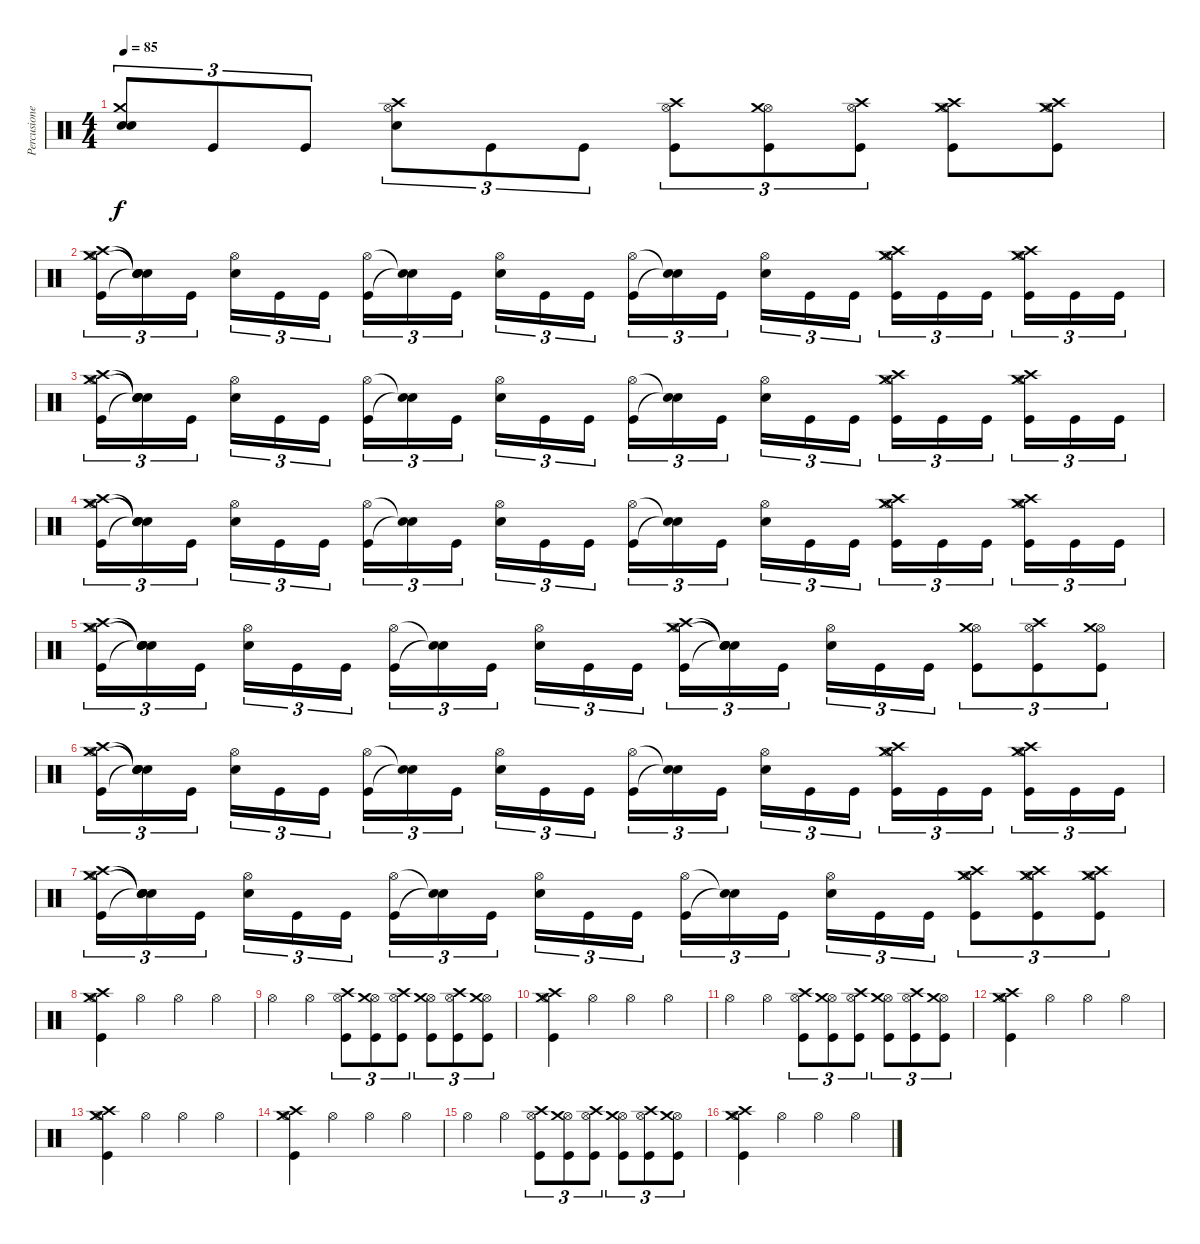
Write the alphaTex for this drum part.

\track ("Percusiones" "Percusione") {instrument percussion}
\staff {score}
\articulation defaults
\ts (4 4)
\tempo 85
\clef neutral
\ks c
("Snare (hit)" "Crash medium (hit)" "Electric Snare (hit)").8{tu (3 2) dy f} "Kick (hit)".8{tu (3 2)} "Kick (hit)".8{tu (3 2)} ("Hi-Hat (open)" "Crash high (hit)" "Electric Snare (hit)").8{tu (3 2)} "Kick (hit)".8{tu (3 2)} "Kick (hit)".8{tu (3 2)} ("Hi-Hat (open)" "Crash high (hit)" "Kick (hit)").8{tu (3 2)} ("Hi-Hat (open)" "Crash medium (hit)" "Kick (hit)").8{tu (3 2)} ("Hi-Hat (open)" "Crash high (hit)" "Kick (hit)").8{tu (3 2)} ("Hi-Hat (open)" "Crash high (hit)" "Crash medium (hit)" "Kick (hit)").8 ("Hi-Hat (open)" "Crash high (hit)" "Crash medium (hit)" "Kick (hit)").8 |
("Hi-Hat (open)" "Crash high (hit)" "Crash medium (hit)" "Kick (hit)").16{tu (3 2)} ("Snare (hit)"{t} "Snare (hit)"{t} "Snare (hit)"{t} "Snare (hit)"{t}).16{tu (3 2)} "Kick (hit)".16{tu (3 2)} ("Hi-Hat (open)" "Electric Snare (hit)").16{tu (3 2)} "Kick (hit)".16{tu (3 2)} "Kick (hit)".16{tu (3 2)} ("Hi-Hat (open)" "Kick (hit)").16{tu (3 2)} ("Snare (hit)"{t} "Snare (hit)"{t}).16{tu (3 2)} "Kick (hit)".16{tu (3 2)} ("Hi-Hat (open)" "Electric Snare (hit)").16{tu (3 2)} "Kick (hit)".16{tu (3 2)} "Kick (hit)".16{tu (3 2)} ("Hi-Hat (open)" "Kick (hit)").16{tu (3 2)} ("Snare (hit)"{t} "Snare (hit)"{t}).16{tu (3 2)} "Kick (hit)".16{tu (3 2)} ("Hi-Hat (open)" "Electric Snare (hit)").16{tu (3 2)} "Kick (hit)".16{tu (3 2)} "Kick (hit)".16{tu (3 2)} ("Hi-Hat (open)" "Crash medium (hit)" "Crash high (hit)" "Kick (hit)").16{tu (3 2)} "Kick (hit)".16{tu (3 2)} "Kick (hit)".16{tu (3 2)} ("Hi-Hat (open)" "Crash high (hit)" "Crash medium (hit)" "Kick (hit)").16{tu (3 2)} "Kick (hit)".16{tu (3 2)} "Kick (hit)".16{tu (3 2)} |
("Hi-Hat (open)" "Crash high (hit)" "Crash medium (hit)" "Kick (hit)").16{tu (3 2)} ("Snare (hit)"{t} "Snare (hit)"{t} "Snare (hit)"{t} "Snare (hit)"{t}).16{tu (3 2)} "Kick (hit)".16{tu (3 2)} ("Hi-Hat (open)" "Electric Snare (hit)").16{tu (3 2)} "Kick (hit)".16{tu (3 2)} "Kick (hit)".16{tu (3 2)} ("Hi-Hat (open)" "Kick (hit)").16{tu (3 2)} ("Snare (hit)"{t} "Snare (hit)"{t}).16{tu (3 2)} "Kick (hit)".16{tu (3 2)} ("Hi-Hat (open)" "Electric Snare (hit)").16{tu (3 2)} "Kick (hit)".16{tu (3 2)} "Kick (hit)".16{tu (3 2)} ("Hi-Hat (open)" "Kick (hit)").16{tu (3 2)} ("Snare (hit)"{t} "Snare (hit)"{t}).16{tu (3 2)} "Kick (hit)".16{tu (3 2)} ("Hi-Hat (open)" "Electric Snare (hit)").16{tu (3 2)} "Kick (hit)".16{tu (3 2)} "Kick (hit)".16{tu (3 2)} ("Hi-Hat (open)" "Crash medium (hit)" "Crash high (hit)" "Kick (hit)").16{tu (3 2)} "Kick (hit)".16{tu (3 2)} "Kick (hit)".16{tu (3 2)} ("Hi-Hat (open)" "Crash high (hit)" "Crash medium (hit)" "Kick (hit)").16{tu (3 2)} "Kick (hit)".16{tu (3 2)} "Kick (hit)".16{tu (3 2)} |
("Hi-Hat (open)" "Crash high (hit)" "Crash medium (hit)" "Kick (hit)").16{tu (3 2)} ("Snare (hit)"{t} "Snare (hit)"{t} "Snare (hit)"{t} "Snare (hit)"{t}).16{tu (3 2)} "Kick (hit)".16{tu (3 2)} ("Hi-Hat (open)" "Electric Snare (hit)").16{tu (3 2)} "Kick (hit)".16{tu (3 2)} "Kick (hit)".16{tu (3 2)} ("Hi-Hat (open)" "Kick (hit)").16{tu (3 2)} ("Snare (hit)"{t} "Snare (hit)"{t}).16{tu (3 2)} "Kick (hit)".16{tu (3 2)} ("Hi-Hat (open)" "Electric Snare (hit)").16{tu (3 2)} "Kick (hit)".16{tu (3 2)} "Kick (hit)".16{tu (3 2)} ("Hi-Hat (open)" "Kick (hit)").16{tu (3 2)} ("Snare (hit)"{t} "Snare (hit)"{t}).16{tu (3 2)} "Kick (hit)".16{tu (3 2)} ("Hi-Hat (open)" "Electric Snare (hit)").16{tu (3 2)} "Kick (hit)".16{tu (3 2)} "Kick (hit)".16{tu (3 2)} ("Hi-Hat (open)" "Crash medium (hit)" "Crash high (hit)" "Kick (hit)").16{tu (3 2)} "Kick (hit)".16{tu (3 2)} "Kick (hit)".16{tu (3 2)} ("Hi-Hat (open)" "Crash high (hit)" "Crash medium (hit)" "Kick (hit)").16{tu (3 2)} "Kick (hit)".16{tu (3 2)} "Kick (hit)".16{tu (3 2)} |
("Hi-Hat (open)" "Crash high (hit)" "Crash medium (hit)" "Kick (hit)").16{tu (3 2)} ("Snare (hit)"{t} "Snare (hit)"{t} "Snare (hit)"{t} "Snare (hit)"{t}).16{tu (3 2)} "Kick (hit)".16{tu (3 2)} ("Hi-Hat (open)" "Electric Snare (hit)").16{tu (3 2)} "Kick (hit)".16{tu (3 2)} "Kick (hit)".16{tu (3 2)} ("Hi-Hat (open)" "Kick (hit)").16{tu (3 2)} ("Snare (hit)"{t} "Snare (hit)"{t}).16{tu (3 2)} "Kick (hit)".16{tu (3 2)} ("Hi-Hat (open)" "Electric Snare (hit)").16{tu (3 2)} "Kick (hit)".16{tu (3 2)} "Kick (hit)".16{tu (3 2)} ("Hi-Hat (open)" "Crash high (hit)" "Crash medium (hit)" "Kick (hit)").16{tu (3 2)} ("Snare (hit)"{t} "Snare (hit)"{t} "Snare (hit)"{t} "Snare (hit)"{t}).16{tu (3 2)} "Kick (hit)".16{tu (3 2)} ("Hi-Hat (open)" "Electric Snare (hit)").16{tu (3 2)} "Kick (hit)".16{tu (3 2)} "Kick (hit)".16{tu (3 2)} ("Hi-Hat (open)" "Crash medium (hit)" "Kick (hit)").8{tu (3 2)} ("Hi-Hat (open)" "Crash high (hit)" "Kick (hit)").8{tu (3 2)} ("Hi-Hat (open)" "Crash medium (hit)" "Kick (hit)").8{tu (3 2)} |
("Hi-Hat (open)" "Crash high (hit)" "Crash medium (hit)" "Kick (hit)").16{tu (3 2)} ("Snare (hit)"{t} "Snare (hit)"{t} "Snare (hit)"{t} "Snare (hit)"{t}).16{tu (3 2)} "Kick (hit)".16{tu (3 2)} ("Hi-Hat (open)" "Electric Snare (hit)").16{tu (3 2)} "Kick (hit)".16{tu (3 2)} "Kick (hit)".16{tu (3 2)} ("Hi-Hat (open)" "Kick (hit)").16{tu (3 2)} ("Snare (hit)"{t} "Snare (hit)"{t}).16{tu (3 2)} "Kick (hit)".16{tu (3 2)} ("Hi-Hat (open)" "Electric Snare (hit)").16{tu (3 2)} "Kick (hit)".16{tu (3 2)} "Kick (hit)".16{tu (3 2)} ("Hi-Hat (open)" "Kick (hit)").16{tu (3 2)} ("Snare (hit)"{t} "Snare (hit)"{t}).16{tu (3 2)} "Kick (hit)".16{tu (3 2)} ("Hi-Hat (open)" "Electric Snare (hit)").16{tu (3 2)} "Kick (hit)".16{tu (3 2)} "Kick (hit)".16{tu (3 2)} ("Hi-Hat (open)" "Crash medium (hit)" "Crash high (hit)" "Kick (hit)").16{tu (3 2)} "Kick (hit)".16{tu (3 2)} "Kick (hit)".16{tu (3 2)} ("Hi-Hat (open)" "Crash high (hit)" "Crash medium (hit)" "Kick (hit)").16{tu (3 2)} "Kick (hit)".16{tu (3 2)} "Kick (hit)".16{tu (3 2)} |
("Hi-Hat (open)" "Crash high (hit)" "Crash medium (hit)" "Kick (hit)").16{tu (3 2)} ("Snare (hit)"{t} "Snare (hit)"{t} "Snare (hit)"{t} "Snare (hit)"{t}).16{tu (3 2)} "Kick (hit)".16{tu (3 2)} ("Hi-Hat (open)" "Electric Snare (hit)").16{tu (3 2)} "Kick (hit)".16{tu (3 2)} "Kick (hit)".16{tu (3 2)} ("Hi-Hat (open)" "Kick (hit)").16{tu (3 2)} ("Snare (hit)"{t} "Snare (hit)"{t}).16{tu (3 2)} "Kick (hit)".16{tu (3 2)} ("Hi-Hat (open)" "Electric Snare (hit)").16{tu (3 2)} "Kick (hit)".16{tu (3 2)} "Kick (hit)".16{tu (3 2)} ("Hi-Hat (open)" "Kick (hit)").16{tu (3 2)} ("Snare (hit)"{t} "Snare (hit)"{t}).16{tu (3 2)} "Kick (hit)".16{tu (3 2)} ("Hi-Hat (open)" "Electric Snare (hit)").16{tu (3 2)} "Kick (hit)".16{tu (3 2)} "Kick (hit)".16{tu (3 2)} ("Hi-Hat (open)" "Crash high (hit)" "Crash medium (hit)" "Kick (hit)").8{tu (3 2)} ("Hi-Hat (open)" "Crash high (hit)" "Crash medium (hit)" "Kick (hit)").8{tu (3 2)} ("Hi-Hat (open)" "Crash high (hit)" "Crash medium (hit)" "Kick (hit)").8{tu (3 2)} |
("Hi-Hat (open)" "Crash medium (hit)" "Crash high (hit)" "Kick (hit)").4 "Hi-Hat (open)".4 "Hi-Hat (open)".4 "Hi-Hat (open)".4 |
"Hi-Hat (open)".4 "Hi-Hat (open)".4 ("Hi-Hat (open)" "Crash high (hit)" "Kick (hit)").8{tu (3 2)} ("Hi-Hat (open)" "Crash medium (hit)" "Kick (hit)").8{tu (3 2)} ("Hi-Hat (open)" "Crash high (hit)" "Kick (hit)").8{tu (3 2)} ("Hi-Hat (open)" "Crash medium (hit)" "Kick (hit)").8{tu (3 2)} ("Hi-Hat (open)" "Crash high (hit)" "Kick (hit)").8{tu (3 2)} ("Hi-Hat (open)" "Crash medium (hit)" "Kick (hit)").8{tu (3 2)} |
("Hi-Hat (open)" "Crash medium (hit)" "Crash high (hit)" "Kick (hit)").4 "Hi-Hat (open)".4 "Hi-Hat (open)".4 "Hi-Hat (open)".4 |
"Hi-Hat (open)".4 "Hi-Hat (open)".4 ("Hi-Hat (open)" "Crash high (hit)" "Kick (hit)").8{tu (3 2)} ("Hi-Hat (open)" "Crash medium (hit)" "Kick (hit)").8{tu (3 2)} ("Hi-Hat (open)" "Crash high (hit)" "Kick (hit)").8{tu (3 2)} ("Hi-Hat (open)" "Crash medium (hit)" "Kick (hit)").8{tu (3 2)} ("Hi-Hat (open)" "Crash high (hit)" "Kick (hit)").8{tu (3 2)} ("Hi-Hat (open)" "Crash medium (hit)" "Kick (hit)").8{tu (3 2)} |
("Hi-Hat (open)" "Crash medium (hit)" "Crash high (hit)" "Kick (hit)").4 "Hi-Hat (open)".4 "Hi-Hat (open)".4 "Hi-Hat (open)".4 |
("Hi-Hat (open)" "Crash medium (hit)" "Crash high (hit)" "Kick (hit)").4 "Hi-Hat (open)".4 "Hi-Hat (open)".4 "Hi-Hat (open)".4 |
("Hi-Hat (open)" "Crash medium (hit)" "Crash high (hit)" "Kick (hit)").4 "Hi-Hat (open)".4 "Hi-Hat (open)".4 "Hi-Hat (open)".4 |
"Hi-Hat (open)".4 "Hi-Hat (open)".4 ("Hi-Hat (open)" "Crash high (hit)" "Kick (hit)").8{tu (3 2)} ("Hi-Hat (open)" "Crash medium (hit)" "Kick (hit)").8{tu (3 2)} ("Hi-Hat (open)" "Crash high (hit)" "Kick (hit)").8{tu (3 2)} ("Hi-Hat (open)" "Crash medium (hit)" "Kick (hit)").8{tu (3 2)} ("Hi-Hat (open)" "Crash high (hit)" "Kick (hit)").8{tu (3 2)} ("Hi-Hat (open)" "Crash medium (hit)" "Kick (hit)").8{tu (3 2)} |
("Hi-Hat (open)" "Crash medium (hit)" "Crash high (hit)" "Kick (hit)").4 "Hi-Hat (open)".4 "Hi-Hat (open)".4 "Hi-Hat (open)".4
